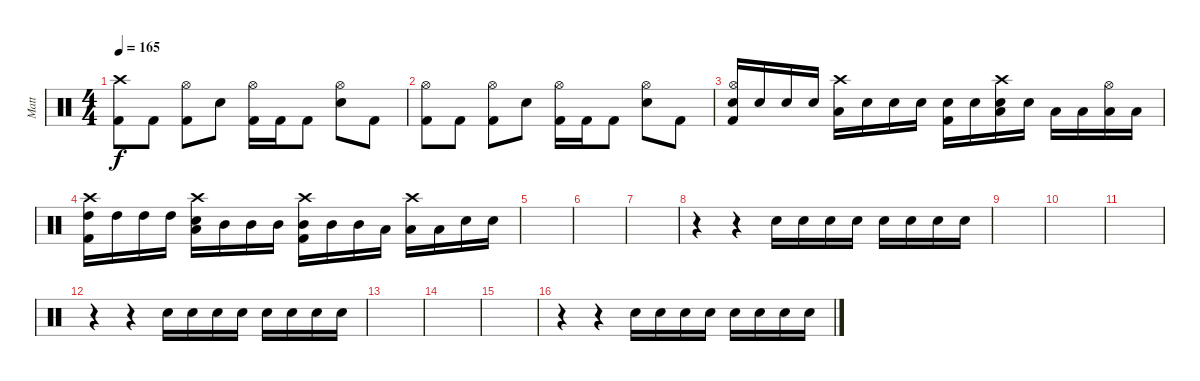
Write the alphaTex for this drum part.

\track ("Matt" "Matt") {instrument percussion}
\staff {score}
\articulation defaults
\ts (4 4)
\tempo 165
\clef neutral
\ks c
("Crash high (hit)" "Kick (hit) 2").8{dy f} "Kick (hit) 2".8 ("Hi-Hat (open)" "Kick (hit) 2").8 "Electric Snare (hit)".8 ("Hi-Hat (open)" "Kick (hit) 2").16 "Kick (hit) 2".16 "Kick (hit) 2".8 ("Hi-Hat (open)" "Electric Snare (hit)").8 "Kick (hit) 2".8 |
("Hi-Hat (open)" "Kick (hit) 2").8 "Kick (hit) 2".8 ("Hi-Hat (open)" "Kick (hit) 2").8 "Electric Snare (hit)".8 ("Hi-Hat (open)" "Kick (hit) 2").16 "Kick (hit) 2".16 "Kick (hit) 2".8 ("Hi-Hat (open)" "Electric Snare (hit)").8 "Kick (hit) 2".8 |
("Hi-Hat (open)" "Electric Snare (hit)" "Kick (hit) 2").16 "Electric Snare (hit)".16 "Electric Snare (hit)".16 "Electric Snare (hit)".16 ("Crash high (hit)" "Low Tom (hit)").16 "Electric Snare (hit)".16 "Electric Snare (hit)".16 "Electric Snare (hit)".16 ("Electric Snare (hit)" "Kick (hit) 2").16 "Electric Snare (hit)".16 ("Crash high (hit)" "Low Tom (hit)" "Electric Snare (hit)").16 "Electric Snare (hit)".16 "Low Tom (hit)".16 "Low Tom (hit)".16 ("Hi-Hat (open)" "Low Tom (hit)").16 "Low Tom (hit)".16 |
("Crash high (hit)" "High Tom (hit)" "Kick (hit) 2").16 "High Tom (hit)".16 "High Tom (hit)".16 "High Tom (hit)".16 ("Crash high (hit)" "Low Tom (hit)" "Electric Snare (hit)").16 "Mid Tom (hit)".16 "Mid Tom (hit)".16 "Mid Tom (hit)".16 ("Crash high (hit)" "Mid Tom (hit)" "Kick (hit) 2").16 "Mid Tom (hit)".16 "Mid Tom (hit)".16 "Low Tom (hit)".16 ("Crash high (hit)" "Low Tom (hit)").16 "Low Tom (hit)".16 "Electric Snare (hit)".16 "Electric Snare (hit)".16 |
|
|
|
r.4 r.4 "Electric Snare (hit)".16 "Electric Snare (hit)".16 "Electric Snare (hit)".16 "Electric Snare (hit)".16 "Electric Snare (hit)".16 "Electric Snare (hit)".16 "Electric Snare (hit)".16 "Electric Snare (hit)".16 |
|
|
|
r.4 r.4 "Electric Snare (hit)".16 "Electric Snare (hit)".16 "Electric Snare (hit)".16 "Electric Snare (hit)".16 "Electric Snare (hit)".16 "Electric Snare (hit)".16 "Electric Snare (hit)".16 "Electric Snare (hit)".16 |
|
|
|
r.4 r.4 "Electric Snare (hit)".16 "Electric Snare (hit)".16 "Electric Snare (hit)".16 "Electric Snare (hit)".16 "Electric Snare (hit)".16 "Electric Snare (hit)".16 "Electric Snare (hit)".16 "Electric Snare (hit)".16
